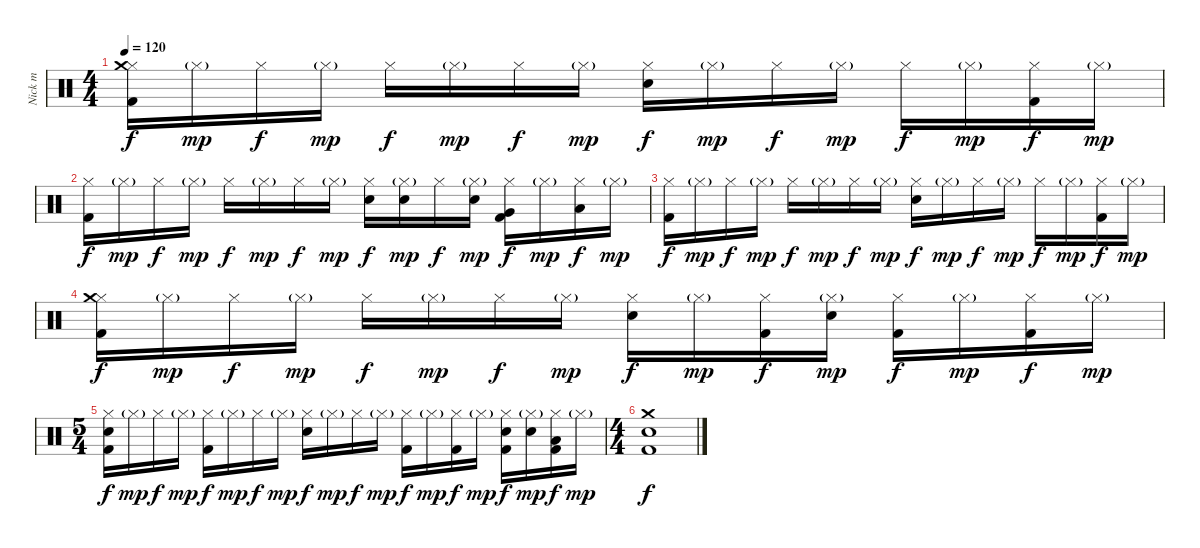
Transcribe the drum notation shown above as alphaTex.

\track ("Nick m" "Nick m") {instrument percussion}
\staff {score}
\articulation defaults
\ts (4 4)
\tempo 120
\clef neutral
\ks c
("Hi-Hat (closed)" "Crash medium (hit)" "Kick (hit) 2").16{dy f} "Hi-Hat (closed)"{g}.16{dy mp} "Hi-Hat (closed)".16{dy f} "Hi-Hat (closed)"{g}.16{dy mp} "Hi-Hat (closed)".16{dy f} "Hi-Hat (closed)"{g}.16{dy mp} "Hi-Hat (closed)".16{dy f} "Hi-Hat (closed)"{g}.16{dy mp} ("Hi-Hat (closed)" "Snare (hit) 2").16{dy f} "Hi-Hat (closed)"{g}.16{dy mp} "Hi-Hat (closed)".16{dy f} "Hi-Hat (closed)"{g}.16{dy mp} "Hi-Hat (closed)".16{dy f} "Hi-Hat (closed)"{g}.16{dy mp} ("Hi-Hat (closed)" "Kick (hit) 2").16{dy f} "Hi-Hat (closed)"{g}.16{dy mp} |
("Hi-Hat (closed)" "Kick (hit) 2").16{dy f} "Hi-Hat (closed)"{g}.16{dy mp} "Hi-Hat (closed)".16{dy f} "Hi-Hat (closed)"{g}.16{dy mp} "Hi-Hat (closed)".16{dy f} "Hi-Hat (closed)"{g}.16{dy mp} "Hi-Hat (closed)".16{dy f} "Hi-Hat (closed)"{g}.16{dy mp} ("Hi-Hat (closed)" "Snare (hit) 2").16{dy f} ("Hi-Hat (closed)"{g} "Snare (hit) 2").16{dy mp} "Hi-Hat (closed)".16{dy f} ("Hi-Hat (closed)"{g} "Snare (hit) 2").16{dy mp} ("Hi-Hat (closed)" "Very Low Tom (hit)" "Kick (hit) 2").16{dy f} "Hi-Hat (closed)"{g}.16{dy mp} ("Hi-Hat (closed)" "Low Floor Tom (hit)").16{dy f} "Hi-Hat (closed)"{g}.16{dy mp} |
("Hi-Hat (closed)" "Kick (hit) 2").16{dy f} "Hi-Hat (closed)"{g}.16{dy mp} "Hi-Hat (closed)".16{dy f} "Hi-Hat (closed)"{g}.16{dy mp} "Hi-Hat (closed)".16{dy f} "Hi-Hat (closed)"{g}.16{dy mp} "Hi-Hat (closed)".16{dy f} "Hi-Hat (closed)"{g}.16{dy mp} ("Hi-Hat (closed)" "Snare (hit) 2").16{dy f} "Hi-Hat (closed)"{g}.16{dy mp} "Hi-Hat (closed)".16{dy f} "Hi-Hat (closed)"{g}.16{dy mp} "Hi-Hat (closed)".16{dy f} "Hi-Hat (closed)"{g}.16{dy mp} ("Hi-Hat (closed)" "Kick (hit) 2").16{dy f} "Hi-Hat (closed)"{g}.16{dy mp} |
("Hi-Hat (closed)" "Crash medium (hit)" "Kick (hit) 2").16{dy f} "Hi-Hat (closed)"{g}.16{dy mp} "Hi-Hat (closed)".16{dy f} "Hi-Hat (closed)"{g}.16{dy mp} "Hi-Hat (closed)".16{dy f} "Hi-Hat (closed)"{g}.16{dy mp} "Hi-Hat (closed)".16{dy f} "Hi-Hat (closed)"{g}.16{dy mp} ("Hi-Hat (closed)" "Snare (hit) 2").16{dy f} "Hi-Hat (closed)"{g}.16{dy mp} ("Hi-Hat (closed)" "Kick (hit) 2").16{dy f} ("Hi-Hat (closed)"{g} "Snare (hit) 2").16{dy mp} ("Hi-Hat (closed)" "Kick (hit) 2").16{dy f} "Hi-Hat (closed)"{g}.16{dy mp} ("Hi-Hat (closed)" "Kick (hit) 2").16{dy f} "Hi-Hat (closed)"{g}.16{dy mp} |
\ts (5 4)
("Hi-Hat (closed)" "Snare (hit) 2" "Kick (hit) 2").16{dy f} "Hi-Hat (closed)"{g}.16{dy mp} "Hi-Hat (closed)".16{dy f} "Hi-Hat (closed)"{g}.16{dy mp} ("Hi-Hat (closed)" "Kick (hit) 2").16{dy f} "Hi-Hat (closed)"{g}.16{dy mp} "Hi-Hat (closed)".16{dy f} "Hi-Hat (closed)"{g}.16{dy mp} ("Hi-Hat (closed)" "Snare (hit) 2").16{dy f} "Hi-Hat (closed)"{g}.16{dy mp} "Hi-Hat (closed)".16{dy f} "Hi-Hat (closed)"{g}.16{dy mp} ("Hi-Hat (closed)" "Kick (hit) 2").16{dy f} "Hi-Hat (closed)"{g}.16{dy mp} ("Hi-Hat (closed)" "Kick (hit) 2").16{dy f} "Hi-Hat (closed)"{g}.16{dy mp} ("Hi-Hat (closed)" "Snare (hit) 2" "Kick (hit) 2").16{dy f} ("Hi-Hat (closed)"{g} "Snare (hit) 2").16{dy mp} ("Hi-Hat (closed)" "Low Floor Tom (hit)" "Kick (hit) 2").16{dy f} "Hi-Hat (closed)"{g}.16{dy mp} |
\ts (4 4)
("Crash medium (hit)" "Snare (hit) 2" "Kick (hit) 2").1{dy f}
